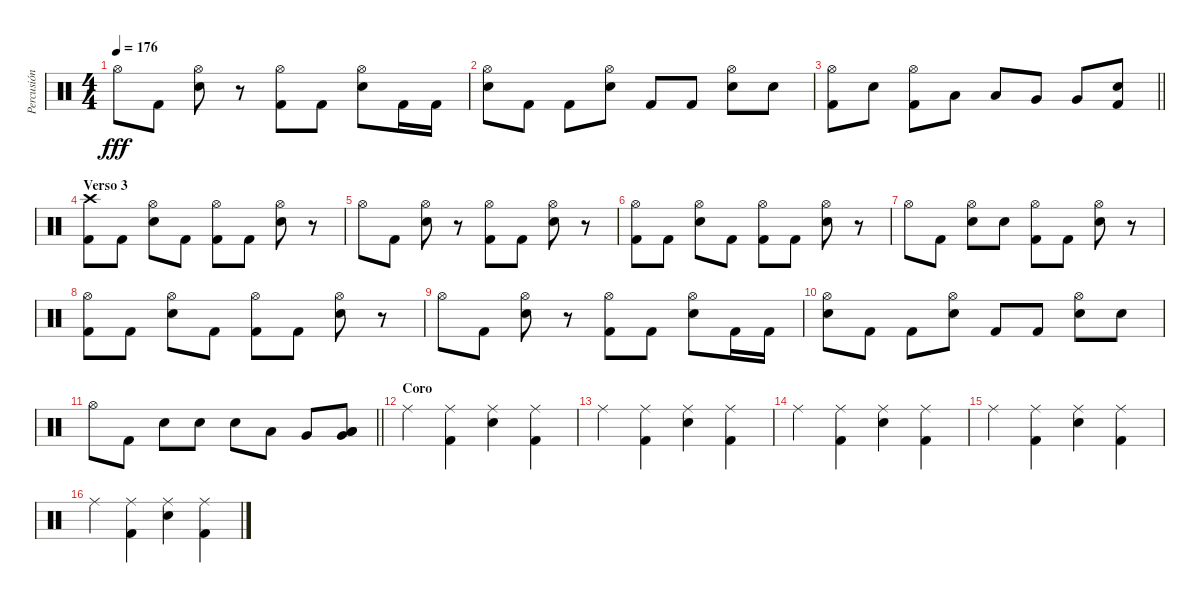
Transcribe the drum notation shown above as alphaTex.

\track ("Percusión" "Percusión") {instrument percussion}
\staff {score}
\articulation defaults
\ts (4 4)
\tempo 176
\clef neutral
\ks c "Hi-Hat (open)".8{dy fff} "Kick (hit) 2".8
("Hi-Hat (open)" "Electric Snare (hit)").8 r.8 ("Hi-Hat (open)" "Kick (hit) 2").8 "Kick (hit) 2".8 ("Hi-Hat (open)" "Electric Snare (hit)").8 "Kick (hit) 2".16 "Kick (hit) 2".16 |
("Hi-Hat (open)" "Electric Snare (hit)").8 "Kick (hit) 2".8 "Kick (hit) 2".8 ("Hi-Hat (open)" "Electric Snare (hit)").8 "Kick (hit) 2".8 "Kick (hit) 2".8 ("Hi-Hat (open)" "Electric Snare (hit)").8 "Snare (hit)".8 |
\barLineRight lightlight
("Hi-Hat (open)" "Kick (hit) 2").8 "Electric Snare (hit)".8 ("Hi-Hat (open)" "Kick (hit) 2").8 "Low Tom (hit)".8 "Low Tom (hit)".8 "Very Low Tom (hit)".8 "Very Low Tom (hit)".8 ("Electric Snare (hit)" "Kick (hit) 2").8 |
\section ("" "Verso 3")
("Crash high (hit)" "Kick (hit) 2").8 "Kick (hit) 2".8 ("Hi-Hat (open)" "Electric Snare (hit)").8 "Kick (hit) 2".8 ("Hi-Hat (open)" "Kick (hit) 2").8 "Kick (hit) 2".8 ("Hi-Hat (open)" "Electric Snare (hit)").8 r.8 |
"Hi-Hat (open)".8 "Kick (hit) 2".8 ("Hi-Hat (open)" "Electric Snare (hit)").8 r.8 ("Hi-Hat (open)" "Kick (hit) 2").8 "Kick (hit) 2".8 ("Hi-Hat (open)" "Electric Snare (hit)").8 r.8 |
("Hi-Hat (open)" "Kick (hit) 2").8 "Kick (hit) 2".8 ("Hi-Hat (open)" "Electric Snare (hit)").8 "Kick (hit) 2".8 ("Hi-Hat (open)" "Kick (hit) 2").8 "Kick (hit) 2".8 ("Hi-Hat (open)" "Electric Snare (hit)").8 r.8 |
"Hi-Hat (open)".8 "Kick (hit) 2".8 ("Hi-Hat (open)" "Electric Snare (hit)").8 "Snare (hit)".8 ("Hi-Hat (open)" "Kick (hit) 2").8 "Kick (hit) 2".8 ("Hi-Hat (open)" "Electric Snare (hit)").8 r.8 |
("Hi-Hat (open)" "Kick (hit) 2").8 "Kick (hit) 2".8 ("Hi-Hat (open)" "Electric Snare (hit)").8 "Kick (hit) 2".8 ("Hi-Hat (open)" "Kick (hit) 2").8 "Kick (hit) 2".8 ("Hi-Hat (open)" "Electric Snare (hit)").8 r.8 |
"Hi-Hat (open)".8 "Kick (hit) 2".8 ("Hi-Hat (open)" "Electric Snare (hit)").8 r.8 ("Hi-Hat (open)" "Kick (hit) 2").8 "Kick (hit) 2".8 ("Hi-Hat (open)" "Electric Snare (hit)").8 "Kick (hit) 2".16 "Kick (hit) 2".16 |
("Hi-Hat (open)" "Electric Snare (hit)").8 "Kick (hit) 2".8 "Kick (hit) 2".8 ("Hi-Hat (open)" "Electric Snare (hit)").8 "Kick (hit) 2".8 "Kick (hit) 2".8 ("Hi-Hat (open)" "Electric Snare (hit)").8 "Snare (hit)".8 |
\barLineRight lightlight "Hi-Hat (open)".8 "Kick (hit) 2".8 "Electric Snare (hit)".8 "Electric Snare (hit)".8 "Electric Snare (hit)".8 "Low Tom (hit)".8 "Very Low Tom (hit)".8
("Very Low Tom (hit)" "Low Floor Tom (hit)" "Low Floor Tom (hit)").8 |
\section ("" "Coro")
"Ride (middle)".4 ("Ride (middle)" "Kick (hit) 2").4 ("Ride (middle)" "Electric Snare (hit)").4 ("Ride (middle)" "Kick (hit) 2").4 |
"Ride (middle)".4 ("Ride (middle)" "Kick (hit) 2").4 ("Ride (middle)" "Electric Snare (hit)").4 ("Ride (middle)" "Kick (hit) 2").4 |
"Ride (middle)".4 ("Ride (middle)" "Kick (hit) 2").4 ("Ride (middle)" "Electric Snare (hit)").4 ("Ride (middle)" "Kick (hit) 2").4 |
"Ride (middle)".4 ("Ride (middle)" "Kick (hit) 2").4 ("Ride (middle)" "Electric Snare (hit)").4 ("Ride (middle)" "Kick (hit) 2").4 |
"Ride (middle)".4 ("Ride (middle)" "Kick (hit) 2").4 ("Ride (middle)" "Electric Snare (hit)").4 ("Ride (middle)" "Kick (hit) 2").4
